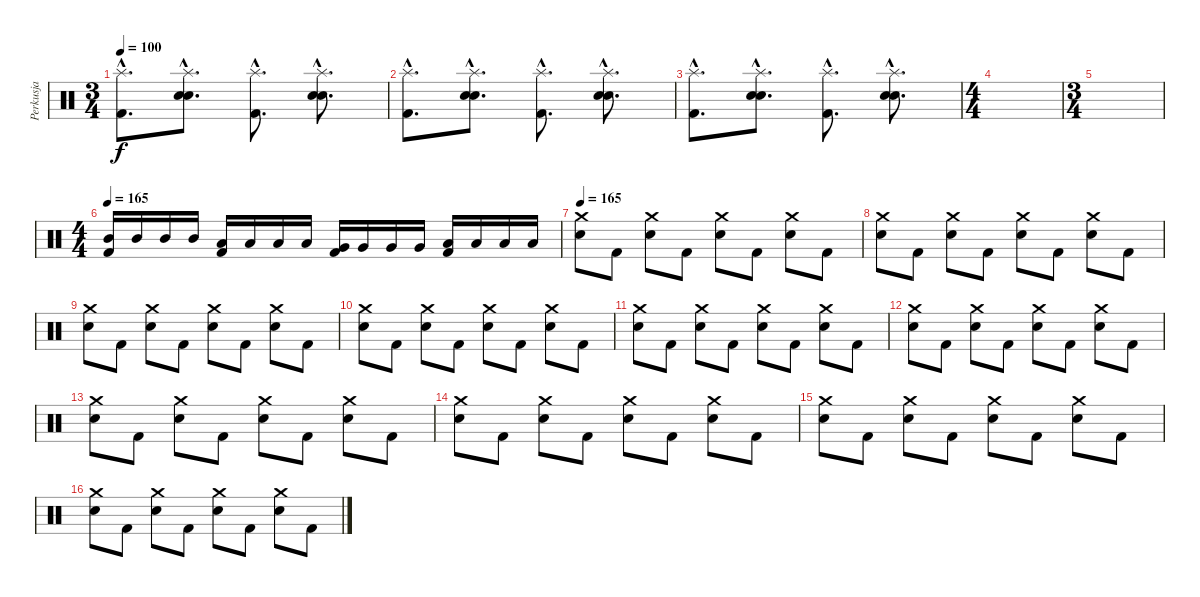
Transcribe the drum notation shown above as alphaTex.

\track ("Perkusja" "Perkusja") {instrument percussion}
\staff {score}
\articulation defaults
\ts (3 4)
\tempo 100
\clef neutral
\ks c
("Splash (hit)"{hac} "Kick (hit) 2"{hac}).8{d dy f} ("Splash (hit)"{hac} "Snare (hit) 2"{hac} "Snare (hit) 2"{hac}).8{d} ("Splash (hit)"{hac} "Kick (hit) 2"{hac}).8{d} ("Splash (hit)"{hac} "Snare (hit) 2"{hac} "Snare (hit) 2"{hac}).8{d} |
("Splash (hit)"{hac} "Kick (hit) 2"{hac}).8{d} ("Splash (hit)"{hac} "Snare (hit) 2"{hac} "Snare (hit) 2"{hac}).8{d} ("Splash (hit)"{hac} "Kick (hit) 2"{hac}).8{d} ("Splash (hit)"{hac} "Snare (hit) 2"{hac} "Snare (hit) 2"{hac}).8{d} |
("Splash (hit)"{hac} "Kick (hit) 2"{hac}).8{d} ("Splash (hit)"{hac} "Snare (hit) 2"{hac} "Snare (hit) 2"{hac}).8{d} ("Splash (hit)"{hac} "Kick (hit) 2"{hac}).8{d} ("Splash (hit)"{hac} "Snare (hit) 2"{hac} "Snare (hit) 2"{hac}).8{d} |
\ts (4 4)
|
\ts (3 4)
|
\ts (4 4)
\tempo 165
("Mid Tom (hit)" "Kick (hit) 2").16 "Mid Tom (hit)".16 "Mid Tom (hit)".16 "Mid Tom (hit)".16 ("Low Tom (hit)" "Kick (hit) 2").16 "Low Tom (hit)".16 "Low Tom (hit)".16 "Low Tom (hit)".16 ("Very Low Tom (hit)" "Kick (hit) 2").16 "Very Low Tom (hit)".16 "Very Low Tom (hit)".16 "Very Low Tom (hit)".16 ("Low Floor Tom (hit)" "Kick (hit) 2").16 "Low Floor Tom (hit)".16 "Low Floor Tom (hit)".16 "Low Floor Tom (hit)".16 |
\tempo 165
("Crash medium (hit)" "Snare (hit) 2").8 "Kick (hit) 2".8 ("Crash medium (hit)" "Snare (hit) 2").8 "Kick (hit) 2".8 ("Crash medium (hit)" "Snare (hit) 2").8 "Kick (hit) 2".8 ("Crash medium (hit)" "Snare (hit) 2").8 "Kick (hit) 2".8 |
("Crash medium (hit)" "Snare (hit) 2").8 "Kick (hit) 2".8 ("Crash medium (hit)" "Snare (hit) 2").8 "Kick (hit) 2".8 ("Crash medium (hit)" "Snare (hit) 2").8 "Kick (hit) 2".8 ("Crash medium (hit)" "Snare (hit) 2").8 "Kick (hit) 2".8 |
("Crash medium (hit)" "Snare (hit) 2").8 "Kick (hit) 2".8 ("Crash medium (hit)" "Snare (hit) 2").8 "Kick (hit) 2".8 ("Crash medium (hit)" "Snare (hit) 2").8 "Kick (hit) 2".8 ("Crash medium (hit)" "Snare (hit) 2").8 "Kick (hit) 2".8 |
("Crash medium (hit)" "Snare (hit) 2").8 "Kick (hit) 2".8 ("Crash medium (hit)" "Snare (hit) 2").8 "Kick (hit) 2".8 ("Crash medium (hit)" "Snare (hit) 2").8 "Kick (hit) 2".8 ("Crash medium (hit)" "Snare (hit) 2").8 "Kick (hit) 2".8 |
("Crash medium (hit)" "Snare (hit) 2").8 "Kick (hit) 2".8 ("Crash medium (hit)" "Snare (hit) 2").8 "Kick (hit) 2".8 ("Crash medium (hit)" "Snare (hit) 2").8 "Kick (hit) 2".8 ("Crash medium (hit)" "Snare (hit) 2").8 "Kick (hit) 2".8 |
("Crash medium (hit)" "Snare (hit) 2").8 "Kick (hit) 2".8 ("Crash medium (hit)" "Snare (hit) 2").8 "Kick (hit) 2".8 ("Crash medium (hit)" "Snare (hit) 2").8 "Kick (hit) 2".8 ("Crash medium (hit)" "Snare (hit) 2").8 "Kick (hit) 2".8 |
("Crash medium (hit)" "Snare (hit) 2").8 "Kick (hit) 2".8 ("Crash medium (hit)" "Snare (hit) 2").8 "Kick (hit) 2".8 ("Crash medium (hit)" "Snare (hit) 2").8 "Kick (hit) 2".8 ("Crash medium (hit)" "Snare (hit) 2").8 "Kick (hit) 2".8 |
("Crash medium (hit)" "Snare (hit) 2").8 "Kick (hit) 2".8 ("Crash medium (hit)" "Snare (hit) 2").8 "Kick (hit) 2".8 ("Crash medium (hit)" "Snare (hit) 2").8 "Kick (hit) 2".8 ("Crash medium (hit)" "Snare (hit) 2").8 "Kick (hit) 2".8 |
("Crash medium (hit)" "Snare (hit) 2").8 "Kick (hit) 2".8 ("Crash medium (hit)" "Snare (hit) 2").8 "Kick (hit) 2".8 ("Crash medium (hit)" "Snare (hit) 2").8 "Kick (hit) 2".8 ("Crash medium (hit)" "Snare (hit) 2").8 "Kick (hit) 2".8 |
("Crash medium (hit)" "Snare (hit) 2").8 "Kick (hit) 2".8 ("Crash medium (hit)" "Snare (hit) 2").8 "Kick (hit) 2".8 ("Crash medium (hit)" "Snare (hit) 2").8 "Kick (hit) 2".8 ("Crash medium (hit)" "Snare (hit) 2").8 "Kick (hit) 2".8
